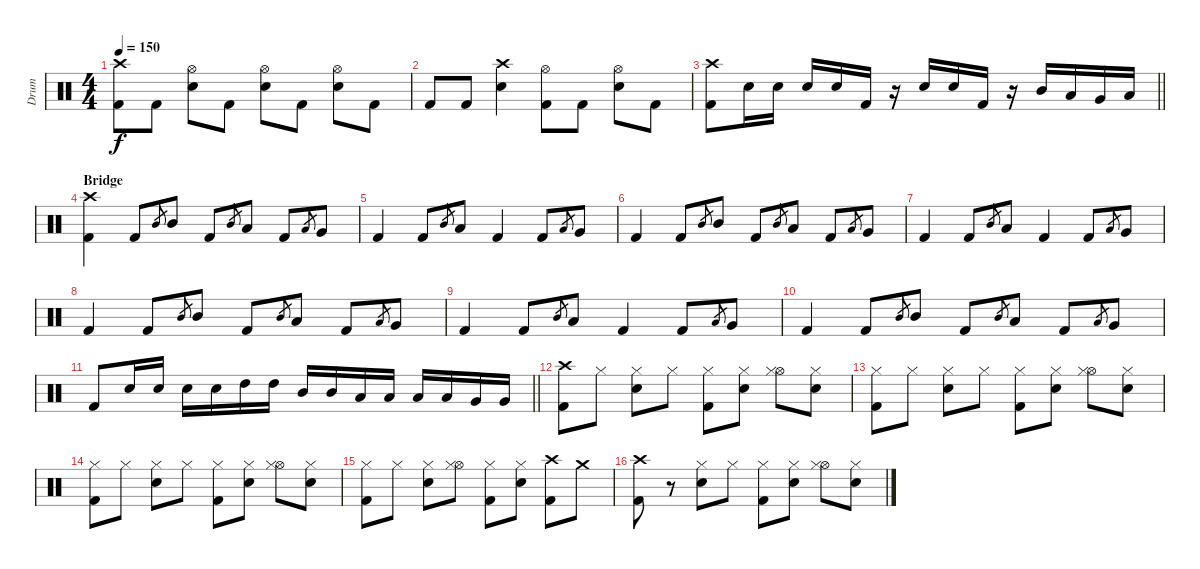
\track ("Drum" "Drum") {instrument percussion}
\staff {score}
\articulation defaults
\ts (4 4)
\tempo 150
\clef neutral
\ks c
("Kick (hit) 2" "Crash high (hit)").8{dy f} "Kick (hit) 2".8 ("Electric Snare (hit)" "Hi-Hat (open)").8 "Kick (hit) 2".8 ("Electric Snare (hit)" "Hi-Hat (open)").8 "Kick (hit) 2".8 ("Electric Snare (hit)" "Hi-Hat (open)").8 "Kick (hit) 2".8 |
"Kick (hit) 2".8 "Kick (hit) 2".8 ("Electric Snare (hit)" "Crash high (hit)").4 ("Kick (hit) 2" "Hi-Hat (open)").8 "Kick (hit) 2".8 ("Electric Snare (hit)" "Hi-Hat (open)").8 "Kick (hit) 2".8 |
\barLineRight lightlight
("Kick (hit) 2" "Crash high (hit)").8 "Electric Snare (hit)".16 "Electric Snare (hit)".16 "Electric Snare (hit)".16 "Electric Snare (hit)".16 "Kick (hit) 2".16 r.16 "Electric Snare (hit)".16 "Electric Snare (hit)".16 "Kick (hit) 2".16 r.16 "Mid Tom (hit)".16 "Low Tom (hit)".16 "Very Low Tom (hit)".16 "Low Floor Tom (hit)".16 |
\section ("" "Bridge")
("Kick (hit) 2" "Crash high (hit)").4 "Kick (hit) 2".8 "Mid Tom (hit)".8{gr} "Mid Tom (hit)".8 "Kick (hit) 2".8 "Mid Tom (hit)".8{gr} "Low Tom (hit)".8 "Kick (hit) 2".8 "Low Tom (hit)".8{gr} "Very Low Tom (hit)".8 |
"Kick (hit) 2".4 "Kick (hit) 2".8 "Mid Tom (hit)".8{gr} "Low Tom (hit)".8 "Kick (hit) 2".4 "Kick (hit) 2".8 "Low Tom (hit)".8{gr} "Very Low Tom (hit)".8 |
"Kick (hit) 2".4 "Kick (hit) 2".8 "Mid Tom (hit)".8{gr} "Mid Tom (hit)".8 "Kick (hit) 2".8 "Mid Tom (hit)".8{gr} "Low Tom (hit)".8 "Kick (hit) 2".8 "Low Tom (hit)".8{gr} "Very Low Tom (hit)".8 |
"Kick (hit) 2".4 "Kick (hit) 2".8 "Mid Tom (hit)".8{gr} "Low Tom (hit)".8 "Kick (hit) 2".4 "Kick (hit) 2".8 "Low Tom (hit)".8{gr} "Very Low Tom (hit)".8 |
"Kick (hit) 2".4 "Kick (hit) 2".8 "Mid Tom (hit)".8{gr} "Mid Tom (hit)".8 "Kick (hit) 2".8 "Mid Tom (hit)".8{gr} "Low Tom (hit)".8 "Kick (hit) 2".8 "Low Tom (hit)".8{gr} "Very Low Tom (hit)".8 |
"Kick (hit) 2".4 "Kick (hit) 2".8 "Mid Tom (hit)".8{gr} "Low Tom (hit)".8 "Kick (hit) 2".4 "Kick (hit) 2".8 "Low Tom (hit)".8{gr} "Very Low Tom (hit)".8 |
"Kick (hit) 2".4 "Kick (hit) 2".8 "Mid Tom (hit)".8{gr} "Mid Tom (hit)".8 "Kick (hit) 2".8 "Mid Tom (hit)".8{gr} "Low Tom (hit)".8 "Kick (hit) 2".8 "Low Tom (hit)".8{gr} "Very Low Tom (hit)".8 |
\barLineRight lightlight "Kick (hit) 2".8 "Electric Snare (hit)".16 "Electric Snare (hit)".16 "Electric Snare (hit)".16 "Electric Snare (hit)".16 "High Tom (hit)".16 "High Tom (hit)".16 "Mid Tom (hit)".16 "Mid Tom (hit)".16 "Low Tom (hit)".16 "Low Tom (hit)".16 "Low Tom (hit)".16 "Low Tom (hit)".16 "Very Low Tom (hit)".16 "Very Low Tom (hit)".16
|
("Kick (hit) 2" "Crash high (hit)").8 "Hi-Hat (closed)".8 ("Electric Snare (hit)" "Hi-Hat (closed)").8 "Hi-Hat (closed)".8 ("Kick (hit) 2" "Hi-Hat (closed)").8 ("Electric Snare (hit)" "Hi-Hat (closed)").8 ("Hi-Hat (open)" "Hi-Hat (closed)").8 ("Electric Snare (hit)" "Hi-Hat (closed)").8 |
("Kick (hit) 2" "Hi-Hat (closed)").8 "Hi-Hat (closed)".8 ("Electric Snare (hit)" "Hi-Hat (closed)").8 "Hi-Hat (closed)".8 ("Kick (hit) 2" "Hi-Hat (closed)").8 ("Electric Snare (hit)" "Hi-Hat (closed)").8 ("Hi-Hat (open)" "Hi-Hat (closed)").8 ("Electric Snare (hit)" "Hi-Hat (closed)").8 |
("Kick (hit) 2" "Hi-Hat (closed)").8 "Hi-Hat (closed)".8 ("Electric Snare (hit)" "Hi-Hat (closed)").8 "Hi-Hat (closed)".8 ("Kick (hit) 2" "Hi-Hat (closed)").8 ("Electric Snare (hit)" "Hi-Hat (closed)").8 ("Hi-Hat (open)" "Hi-Hat (closed)").8 ("Electric Snare (hit)" "Hi-Hat (closed)").8 |
("Kick (hit) 2" "Hi-Hat (closed)").8 "Hi-Hat (closed)".8 ("Electric Snare (hit)" "Hi-Hat (closed)").8 ("Hi-Hat (open)" "Hi-Hat (closed)").8 ("Kick (hit) 2" "Hi-Hat (closed)").8 ("Electric Snare (hit)" "Hi-Hat (closed)").8 ("Kick (hit) 2" "Crash high (hit)").8 "Crash medium (hit)".8 |
("Kick (hit) 2" "Crash high (hit)").8 r.8 ("Electric Snare (hit)" "Hi-Hat (closed)").8 "Hi-Hat (closed)".8 ("Kick (hit) 2" "Hi-Hat (closed)").8 ("Electric Snare (hit)" "Hi-Hat (closed)").8 ("Hi-Hat (open)" "Hi-Hat (closed)").8 ("Electric Snare (hit)" "Hi-Hat (closed)").8
